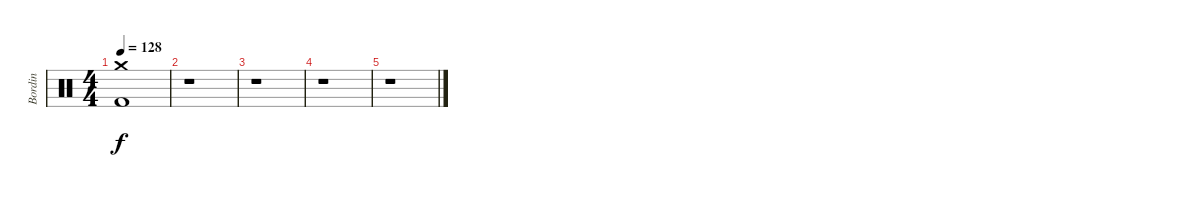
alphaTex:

\track ("Bordin" "Bordin") {instrument percussion}
\staff {score}
\articulation defaults
\ts (4 4)
\tempo 128
\clef neutral
\ks c
("Crash medium (hit)" "Kick (hit) 2").1{dy f} |
r.1 |
r.1 |
r.1 |
r.1
